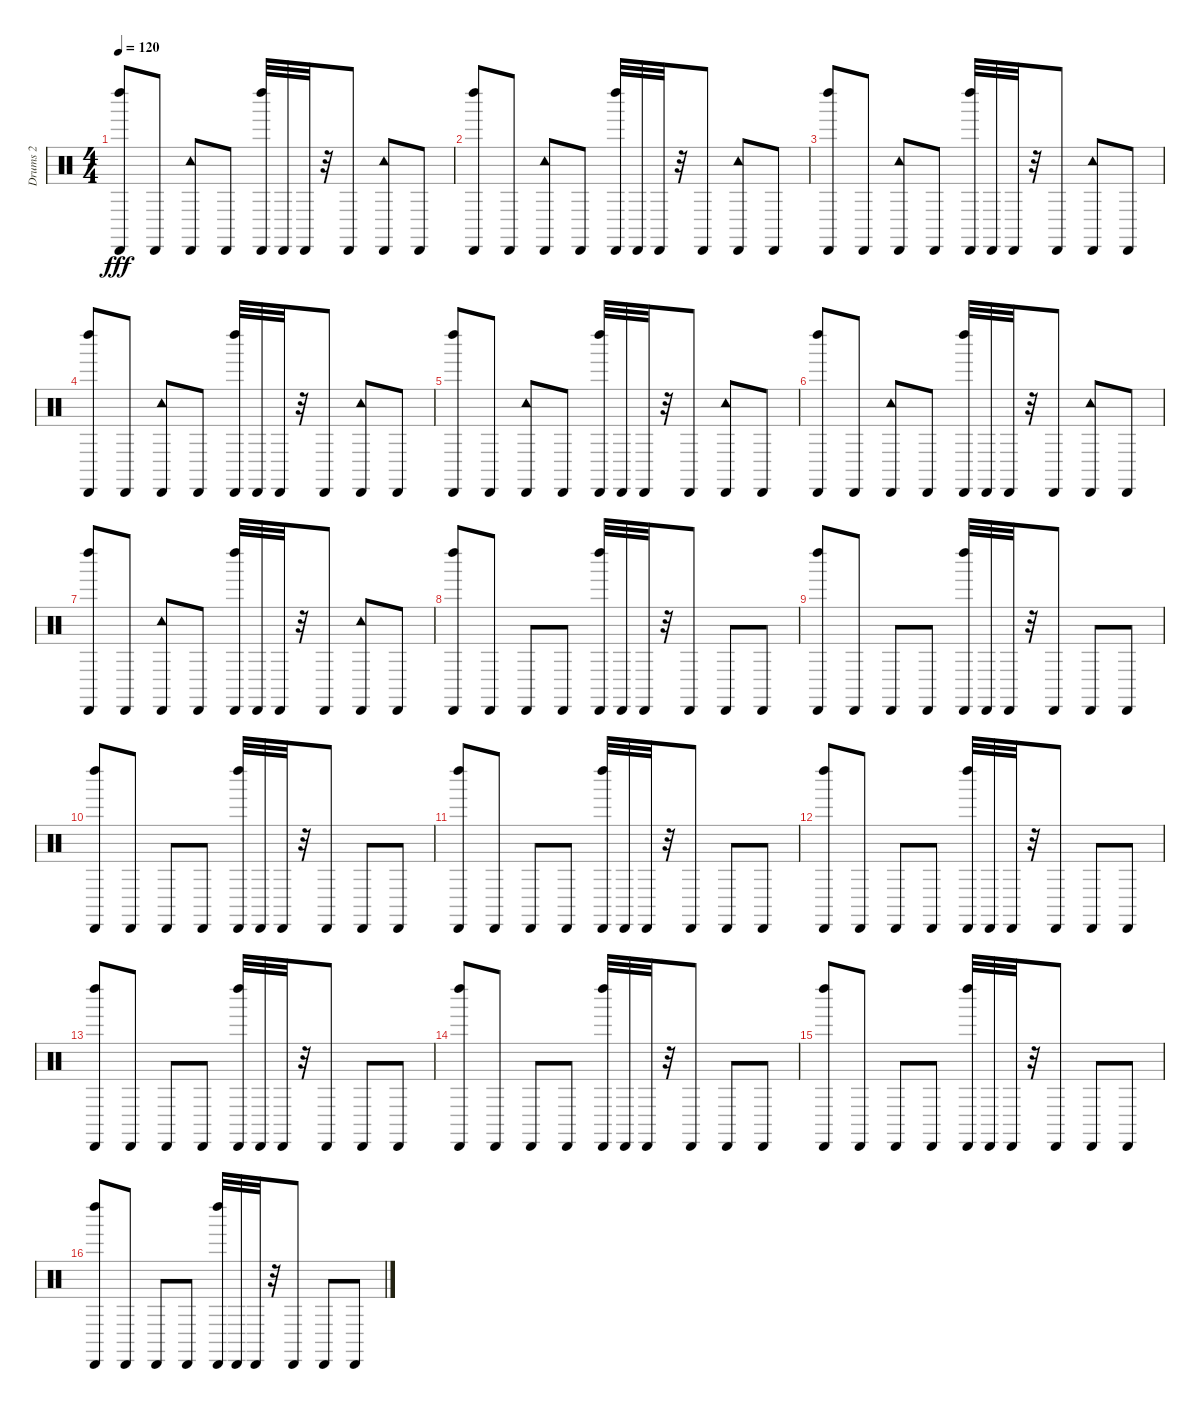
\track ("Drums 2" "Drums 2") {instrument percussion}
\staff {score}
\articulation defaults
\ts (4 4)
\tempo 120
\clef neutral
\ks c
("Cabasa (hit)" "Left Maraca (hit)").8{dy fff} "Cabasa (hit)".8 ("Cabasa (hit)" "Tambourine (hit)").8 "Cabasa (hit)".8 ("Cabasa (hit)" "Left Maraca (hit)").32 "Cabasa (hit)".32 "Cabasa (hit)".32 r.32 "Cabasa (hit)".8 ("Cabasa (hit)" "Tambourine (hit)").8 "Cabasa (hit)".8 |
("Cabasa (hit)" "Left Maraca (hit)").8 "Cabasa (hit)".8 ("Cabasa (hit)" "Tambourine (hit)").8 "Cabasa (hit)".8 ("Cabasa (hit)" "Left Maraca (hit)").32 "Cabasa (hit)".32 "Cabasa (hit)".32 r.32 "Cabasa (hit)".8 ("Cabasa (hit)" "Tambourine (hit)").8 "Cabasa (hit)".8 |
("Cabasa (hit)" "Left Maraca (hit)").8 "Cabasa (hit)".8 ("Cabasa (hit)" "Tambourine (hit)").8 "Cabasa (hit)".8 ("Cabasa (hit)" "Left Maraca (hit)").32 "Cabasa (hit)".32 "Cabasa (hit)".32 r.32 "Cabasa (hit)".8 ("Cabasa (hit)" "Tambourine (hit)").8 "Cabasa (hit)".8 |
("Cabasa (hit)" "Left Maraca (hit)").8 "Cabasa (hit)".8 ("Cabasa (hit)" "Tambourine (hit)").8 "Cabasa (hit)".8 ("Cabasa (hit)" "Left Maraca (hit)").32 "Cabasa (hit)".32 "Cabasa (hit)".32 r.32 "Cabasa (hit)".8 ("Cabasa (hit)" "Tambourine (hit)").8 "Cabasa (hit)".8 |
("Cabasa (hit)" "Left Maraca (hit)").8 "Cabasa (hit)".8 ("Cabasa (hit)" "Tambourine (hit)").8 "Cabasa (hit)".8 ("Cabasa (hit)" "Left Maraca (hit)").32 "Cabasa (hit)".32 "Cabasa (hit)".32 r.32 "Cabasa (hit)".8 ("Cabasa (hit)" "Tambourine (hit)").8 "Cabasa (hit)".8 |
("Cabasa (hit)" "Left Maraca (hit)").8 "Cabasa (hit)".8 ("Cabasa (hit)" "Tambourine (hit)").8 "Cabasa (hit)".8 ("Cabasa (hit)" "Left Maraca (hit)").32 "Cabasa (hit)".32 "Cabasa (hit)".32 r.32 "Cabasa (hit)".8 ("Cabasa (hit)" "Tambourine (hit)").8 "Cabasa (hit)".8 |
("Cabasa (hit)" "Left Maraca (hit)").8 "Cabasa (hit)".8 ("Cabasa (hit)" "Tambourine (hit)").8 "Cabasa (hit)".8 ("Cabasa (hit)" "Left Maraca (hit)").32 "Cabasa (hit)".32 "Cabasa (hit)".32 r.32 "Cabasa (hit)".8 ("Cabasa (hit)" "Tambourine (hit)").8 "Cabasa (hit)".8 |
("Cabasa (hit)" "Left Maraca (hit)").8 "Cabasa (hit)".8 "Cabasa (hit)".8 "Cabasa (hit)".8 ("Cabasa (hit)" "Left Maraca (hit)").32 "Cabasa (hit)".32 "Cabasa (hit)".32 r.32 "Cabasa (hit)".8 "Cabasa (hit)".8 "Cabasa (hit)".8 |
("Cabasa (hit)" "Left Maraca (hit)").8 "Cabasa (hit)".8 "Cabasa (hit)".8 "Cabasa (hit)".8 ("Cabasa (hit)" "Left Maraca (hit)").32 "Cabasa (hit)".32 "Cabasa (hit)".32 r.32 "Cabasa (hit)".8 "Cabasa (hit)".8 "Cabasa (hit)".8 |
("Cabasa (hit)" "Left Maraca (hit)").8 "Cabasa (hit)".8 "Cabasa (hit)".8 "Cabasa (hit)".8 ("Cabasa (hit)" "Left Maraca (hit)").32 "Cabasa (hit)".32 "Cabasa (hit)".32 r.32 "Cabasa (hit)".8 "Cabasa (hit)".8 "Cabasa (hit)".8 |
("Cabasa (hit)" "Left Maraca (hit)").8 "Cabasa (hit)".8 "Cabasa (hit)".8 "Cabasa (hit)".8 ("Cabasa (hit)" "Left Maraca (hit)").32 "Cabasa (hit)".32 "Cabasa (hit)".32 r.32 "Cabasa (hit)".8 "Cabasa (hit)".8 "Cabasa (hit)".8 |
("Cabasa (hit)" "Left Maraca (hit)").8 "Cabasa (hit)".8 "Cabasa (hit)".8 "Cabasa (hit)".8 ("Cabasa (hit)" "Left Maraca (hit)").32 "Cabasa (hit)".32 "Cabasa (hit)".32 r.32 "Cabasa (hit)".8 "Cabasa (hit)".8 "Cabasa (hit)".8 |
("Cabasa (hit)" "Left Maraca (hit)").8 "Cabasa (hit)".8 "Cabasa (hit)".8 "Cabasa (hit)".8 ("Cabasa (hit)" "Left Maraca (hit)").32 "Cabasa (hit)".32 "Cabasa (hit)".32 r.32 "Cabasa (hit)".8 "Cabasa (hit)".8 "Cabasa (hit)".8 |
("Cabasa (hit)" "Left Maraca (hit)").8 "Cabasa (hit)".8 "Cabasa (hit)".8 "Cabasa (hit)".8 ("Cabasa (hit)" "Left Maraca (hit)").32 "Cabasa (hit)".32 "Cabasa (hit)".32 r.32 "Cabasa (hit)".8 "Cabasa (hit)".8 "Cabasa (hit)".8 |
("Cabasa (hit)" "Left Maraca (hit)").8 "Cabasa (hit)".8 "Cabasa (hit)".8 "Cabasa (hit)".8 ("Cabasa (hit)" "Left Maraca (hit)").32 "Cabasa (hit)".32 "Cabasa (hit)".32 r.32 "Cabasa (hit)".8 "Cabasa (hit)".8 "Cabasa (hit)".8 |
("Cabasa (hit)" "Left Maraca (hit)").8 "Cabasa (hit)".8 "Cabasa (hit)".8 "Cabasa (hit)".8 ("Cabasa (hit)" "Left Maraca (hit)").32 "Cabasa (hit)".32 "Cabasa (hit)".32 r.32 "Cabasa (hit)".8 "Cabasa (hit)".8 "Cabasa (hit)".8
